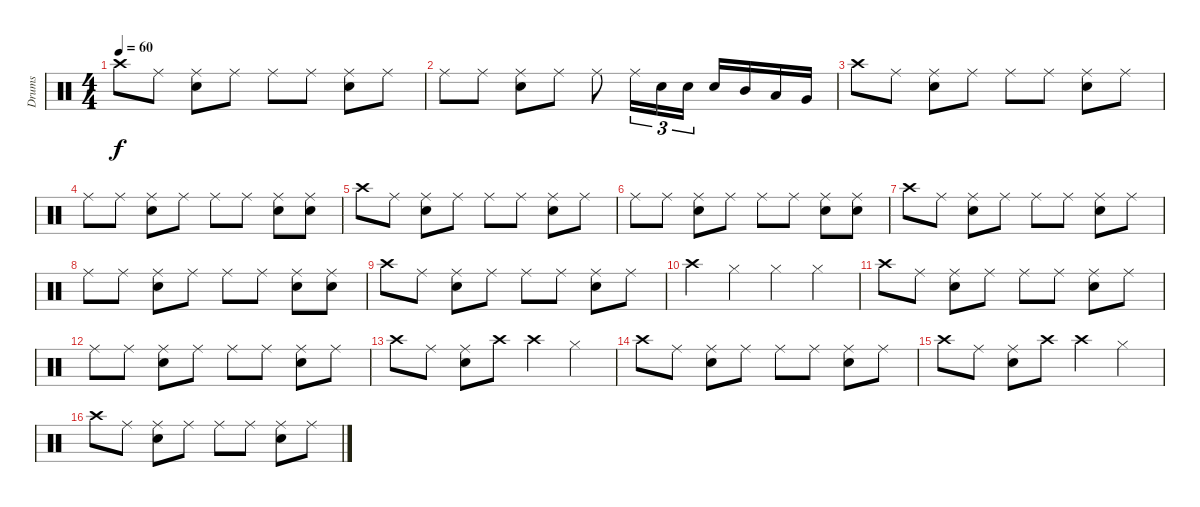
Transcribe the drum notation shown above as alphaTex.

\track ("Drums" "Drums") {instrument percussion}
\staff {score}
\articulation defaults
\ts (4 4)
\tempo 60
\clef neutral
\ks c "Crash high (hit)".8{dy f} "Ride (middle)".8
("Snare (hit) 2" "Ride (middle)").8 "Ride (middle)".8 "Ride (middle)".8 "Ride (middle)".8 ("Snare (hit) 2" "Ride (middle)").8 "Ride (middle)".8 |
"Ride (middle)".8 "Ride (middle)".8 ("Snare (hit) 2" "Ride (middle)").8 "Ride (middle)".8 "Ride (middle)".8 "Ride (middle)".16{tu (3 2)} "Snare (hit) 2".16{tu (3 2)} "Snare (hit) 2".16{tu (3 2)} "Snare (hit) 2".16 "Mid Tom (hit)".16 "Low Tom (hit)".16 "Very Low Tom (hit)".16 |
"Crash high (hit)".8 "Ride (middle)".8 ("Snare (hit) 2" "Ride (middle)").8 "Ride (middle)".8 "Ride (middle)".8 "Ride (middle)".8 ("Snare (hit) 2" "Ride (middle)").8 "Ride (middle)".8 |
"Ride (middle)".8 "Ride (middle)".8 ("Snare (hit) 2" "Ride (middle)").8 "Ride (middle)".8 "Ride (middle)".8 "Ride (middle)".8 ("Snare (hit) 2" "Ride (middle)").8 ("Snare (hit) 2" "Ride (middle)").8 |
"Crash high (hit)".8 "Ride (middle)".8 ("Snare (hit) 2" "Ride (middle)").8 "Ride (middle)".8 "Ride (middle)".8 "Ride (middle)".8 ("Snare (hit) 2" "Ride (middle)").8 "Ride (middle)".8 |
"Ride (middle)".8 "Ride (middle)".8 ("Snare (hit) 2" "Ride (middle)").8 "Ride (middle)".8 "Ride (middle)".8 "Ride (middle)".8 ("Snare (hit) 2" "Ride (middle)").8 ("Snare (hit) 2" "Ride (middle)").8 |
"Crash high (hit)".8 "Ride (middle)".8 ("Snare (hit) 2" "Ride (middle)").8 "Ride (middle)".8 "Ride (middle)".8 "Ride (middle)".8 ("Snare (hit) 2" "Ride (middle)").8 "Ride (middle)".8 |
"Ride (middle)".8 "Ride (middle)".8 ("Snare (hit) 2" "Ride (middle)").8 "Ride (middle)".8 "Ride (middle)".8 "Ride (middle)".8 ("Snare (hit) 2" "Ride (middle)").8 ("Snare (hit) 2" "Ride (middle)").8 |
"Crash high (hit)".8 "Ride (middle)".8 ("Snare (hit) 2" "Ride (middle)").8 "Ride (middle)".8 "Ride (middle)".8 "Ride (middle)".8 ("Snare (hit) 2" "Ride (middle)").8 "Ride (middle)".8 |
"Crash high (hit)".4 "Hi-Hat (closed)".4 "Hi-Hat (closed)".4 "Hi-Hat (closed)".4 |
"Crash high (hit)".8 "Ride (middle)".8 ("Snare (hit) 2" "Ride (middle)").8 "Ride (middle)".8 "Ride (middle)".8 "Ride (middle)".8 ("Snare (hit) 2" "Ride (middle)").8 "Ride (middle)".8 |
"Ride (middle)".8 "Ride (middle)".8 ("Snare (hit) 2" "Ride (middle)").8 "Ride (middle)".8 "Ride (middle)".8 "Ride (middle)".8 ("Snare (hit) 2" "Ride (middle)").8 "Ride (middle)".8 |
"Crash high (hit)".8 "Ride (middle)".8 ("Snare (hit) 2" "Ride (middle)").8 "Crash high (hit)".8 "Crash high (hit)".4 "Hi-Hat (closed)".4 |
"Crash high (hit)".8 "Ride (middle)".8 ("Snare (hit) 2" "Ride (middle)").8 "Ride (middle)".8 "Ride (middle)".8 "Ride (middle)".8 ("Snare (hit) 2" "Ride (middle)").8 "Ride (middle)".8 |
"Crash high (hit)".8 "Ride (middle)".8 ("Snare (hit) 2" "Ride (middle)").8 "Crash high (hit)".8 "Crash high (hit)".4 "Hi-Hat (closed)".4 |
"Crash high (hit)".8 "Ride (middle)".8 ("Snare (hit) 2" "Ride (middle)").8 "Ride (middle)".8 "Ride (middle)".8 "Ride (middle)".8 ("Snare (hit) 2" "Ride (middle)").8 "Ride (middle)".8
